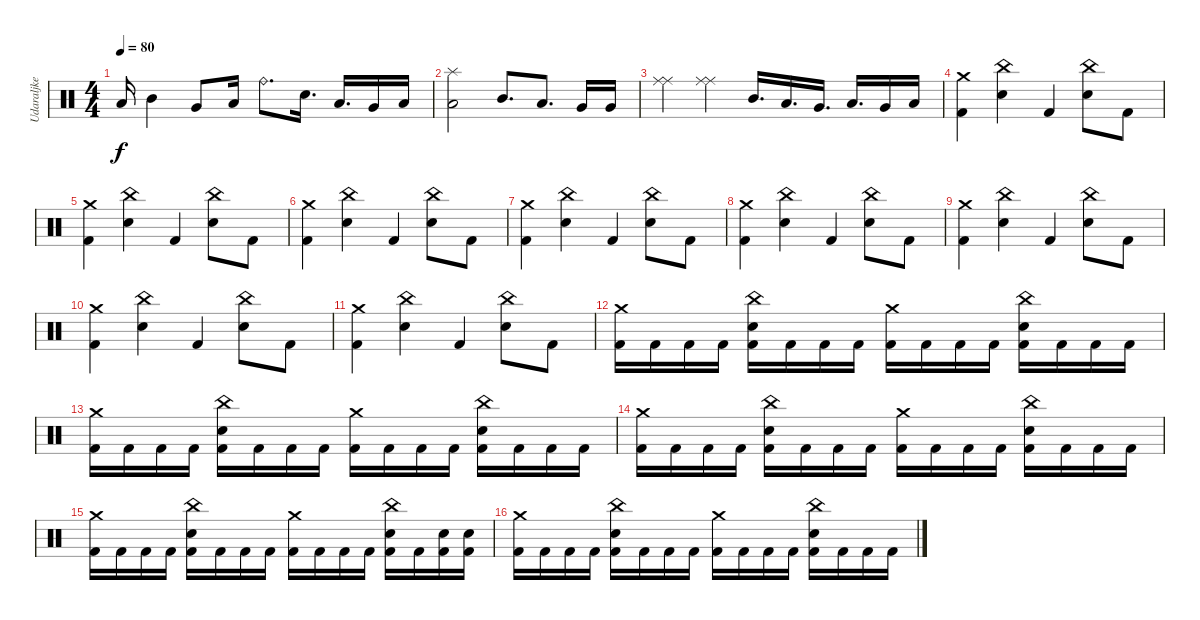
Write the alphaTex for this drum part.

\track ("Udaraljke" "Udaraljke") {instrument percussion}
\staff {score}
\articulation defaults
\ts (4 4)
\tempo 80
\clef neutral
\ks c "Low Tom (hit)".16{dy f} "Mid Tom (hit)".4 "Very Low Tom (hit)".8 "Low Tom (hit)".16 "Ride (bell)".8{d} "Snare (hit) 2".16{d} "Low Floor Tom (hit)".16{d} "Very Low Tom (hit)".16 "Low Floor Tom (hit)".16
|
("Low Tom (hit)" "Splash (hit)").2 "Mid Tom (hit)".8{d} "Low Tom (hit)".8{d} "Very Low Tom (hit)".16 "Very Low Tom (hit)".16 |
("Ride (middle)" "Ride (middle)").4 ("Ride (middle)" "Ride (middle)").4 "Mid Tom (hit)".16{d} "Low Tom (hit)".16{d} "Very Low Tom (hit)".16{d} "Low Tom (hit)".16{d} "Very Low Tom (hit)".16 "Low Floor Tom (hit)".16 |
("Kick (hit) 2" "Crash medium (hit)").4 ("Snare (hit) 2" "China (hit)").4 "Kick (hit) 2".4 ("Snare (hit) 2" "China (hit)").8 "Kick (hit) 2".8 |
("Kick (hit) 2" "Crash medium (hit)").4 ("Snare (hit) 2" "China (hit)").4 "Kick (hit) 2".4 ("Snare (hit) 2" "China (hit)").8 "Kick (hit) 2".8 |
("Kick (hit) 2" "Crash medium (hit)").4 ("Snare (hit) 2" "China (hit)").4 "Kick (hit) 2".4 ("Snare (hit) 2" "China (hit)").8 "Kick (hit) 2".8 |
("Kick (hit) 2" "Crash medium (hit)").4 ("Snare (hit) 2" "China (hit)").4 "Kick (hit) 2".4 ("Snare (hit) 2" "China (hit)").8 "Kick (hit) 2".8 |
("Kick (hit) 2" "Crash medium (hit)").4 ("Snare (hit) 2" "China (hit)").4 "Kick (hit) 2".4 ("Snare (hit) 2" "China (hit)").8 "Kick (hit) 2".8 |
("Kick (hit) 2" "Crash medium (hit)").4 ("Snare (hit) 2" "China (hit)").4 "Kick (hit) 2".4 ("Snare (hit) 2" "China (hit)").8 "Kick (hit) 2".8 |
("Kick (hit) 2" "Crash medium (hit)").4 ("Snare (hit) 2" "China (hit)").4 "Kick (hit) 2".4 ("Snare (hit) 2" "China (hit)").8 "Kick (hit) 2".8 |
("Kick (hit) 2" "Crash medium (hit)").4 ("Snare (hit) 2" "China (hit)").4 "Kick (hit) 2".4 ("Snare (hit) 2" "China (hit)").8 "Kick (hit) 2".8 |
("Kick (hit) 2" "Crash medium (hit)").16 "Kick (hit) 2".16 "Kick (hit) 2".16 "Kick (hit) 2".16 ("Kick (hit) 2" "Snare (hit) 2" "China (hit)").16 "Kick (hit) 2".16 "Kick (hit) 2".16 "Kick (hit) 2".16 ("Kick (hit) 2" "Crash medium (hit)").16 "Kick (hit) 2".16 "Kick (hit) 2".16 "Kick (hit) 2".16 ("Kick (hit) 2" "China (hit)" "Snare (hit) 2").16 "Kick (hit) 2".16 "Kick (hit) 2".16 "Kick (hit) 2".16 |
("Kick (hit) 2" "Crash medium (hit)").16 "Kick (hit) 2".16 "Kick (hit) 2".16 "Kick (hit) 2".16 ("Kick (hit) 2" "Snare (hit) 2" "China (hit)").16 "Kick (hit) 2".16 "Kick (hit) 2".16 "Kick (hit) 2".16 ("Kick (hit) 2" "Crash medium (hit)").16 "Kick (hit) 2".16 "Kick (hit) 2".16 "Kick (hit) 2".16 ("Kick (hit) 2" "China (hit)" "Snare (hit) 2").16 "Kick (hit) 2".16 "Kick (hit) 2".16 "Kick (hit) 2".16 |
("Kick (hit) 2" "Crash medium (hit)").16 "Kick (hit) 2".16 "Kick (hit) 2".16 "Kick (hit) 2".16 ("Kick (hit) 2" "Snare (hit) 2" "China (hit)").16 "Kick (hit) 2".16 "Kick (hit) 2".16 "Kick (hit) 2".16 ("Kick (hit) 2" "Crash medium (hit)").16 "Kick (hit) 2".16 "Kick (hit) 2".16 "Kick (hit) 2".16 ("Kick (hit) 2" "China (hit)" "Snare (hit) 2").16 "Kick (hit) 2".16 "Kick (hit) 2".16 "Kick (hit) 2".16 |
("Kick (hit) 2" "Crash medium (hit)").16 "Kick (hit) 2".16 "Kick (hit) 2".16 "Kick (hit) 2".16 ("Kick (hit) 2" "Snare (hit) 2" "China (hit)").16 "Kick (hit) 2".16 "Kick (hit) 2".16 "Kick (hit) 2".16 ("Kick (hit) 2" "Crash medium (hit)").16 "Kick (hit) 2".16 "Kick (hit) 2".16 "Kick (hit) 2".16 ("Kick (hit) 2" "China (hit)" "Snare (hit) 2").16 "Kick (hit) 2".16 ("Kick (hit) 2" "Snare (hit) 2").16 ("Kick (hit) 2" "Snare (hit) 2").16 |
("Kick (hit) 2" "Crash medium (hit)").16 "Kick (hit) 2".16 "Kick (hit) 2".16 "Kick (hit) 2".16 ("Kick (hit) 2" "Snare (hit) 2" "China (hit)").16 "Kick (hit) 2".16 "Kick (hit) 2".16 "Kick (hit) 2".16 ("Kick (hit) 2" "Crash medium (hit)").16 "Kick (hit) 2".16 "Kick (hit) 2".16 "Kick (hit) 2".16 ("Kick (hit) 2" "China (hit)" "Snare (hit) 2").16 "Kick (hit) 2".16 "Kick (hit) 2".16 "Kick (hit) 2".16
